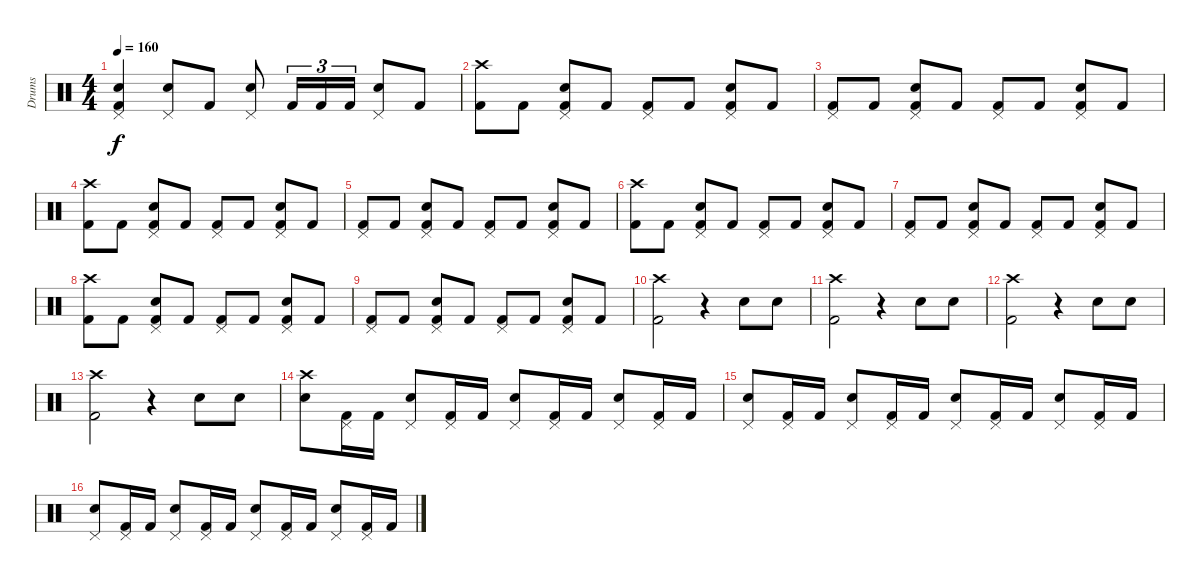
\track ("Drums" "Drums") {instrument percussion}
\staff {score}
\articulation defaults
\ts (4 4)
\tempo 160
\clef neutral
\ks c
("Pedal Hi-Hat (hit)" "Snare (hit) 2" "Kick (hit) 2").4{dy f} ("Pedal Hi-Hat (hit)" "Snare (hit) 2").8 "Kick (hit) 2".8 ("Pedal Hi-Hat (hit)" "Snare (hit) 2").8 "Kick (hit) 2".16{tu (3 2)} "Kick (hit) 2".16{tu (3 2)} "Kick (hit) 2".16{tu (3 2)} ("Pedal Hi-Hat (hit)" "Snare (hit) 2").8 "Kick (hit) 2".8 |
("Crash high (hit)" "Kick (hit) 2").8 "Kick (hit) 2".8 ("Pedal Hi-Hat (hit)" "Snare (hit) 2" "Kick (hit) 2").8 "Kick (hit) 2".8 ("Pedal Hi-Hat (hit)" "Kick (hit) 2").8 "Kick (hit) 2".8 ("Pedal Hi-Hat (hit)" "Snare (hit) 2" "Kick (hit) 2").8 "Kick (hit) 2".8 |
("Pedal Hi-Hat (hit)" "Kick (hit) 2").8 "Kick (hit) 2".8 ("Pedal Hi-Hat (hit)" "Snare (hit) 2" "Kick (hit) 2").8 "Kick (hit) 2".8 ("Pedal Hi-Hat (hit)" "Kick (hit) 2").8 "Kick (hit) 2".8 ("Pedal Hi-Hat (hit)" "Snare (hit) 2" "Kick (hit) 2").8 "Kick (hit) 2".8 |
("Crash high (hit)" "Kick (hit) 2").8 "Kick (hit) 2".8 ("Pedal Hi-Hat (hit)" "Snare (hit) 2" "Kick (hit) 2").8 "Kick (hit) 2".8 ("Pedal Hi-Hat (hit)" "Kick (hit) 2").8 "Kick (hit) 2".8 ("Pedal Hi-Hat (hit)" "Snare (hit) 2" "Kick (hit) 2").8 "Kick (hit) 2".8 |
("Pedal Hi-Hat (hit)" "Kick (hit) 2").8 "Kick (hit) 2".8 ("Pedal Hi-Hat (hit)" "Snare (hit) 2" "Kick (hit) 2").8 "Kick (hit) 2".8 ("Pedal Hi-Hat (hit)" "Kick (hit) 2").8 "Kick (hit) 2".8 ("Pedal Hi-Hat (hit)" "Snare (hit) 2" "Kick (hit) 2").8 "Kick (hit) 2".8 |
("Crash high (hit)" "Kick (hit) 2").8 "Kick (hit) 2".8 ("Pedal Hi-Hat (hit)" "Snare (hit) 2" "Kick (hit) 2").8 "Kick (hit) 2".8 ("Pedal Hi-Hat (hit)" "Kick (hit) 2").8 "Kick (hit) 2".8 ("Pedal Hi-Hat (hit)" "Snare (hit) 2" "Kick (hit) 2").8 "Kick (hit) 2".8 |
("Pedal Hi-Hat (hit)" "Kick (hit) 2").8 "Kick (hit) 2".8 ("Pedal Hi-Hat (hit)" "Snare (hit) 2" "Kick (hit) 2").8 "Kick (hit) 2".8 ("Pedal Hi-Hat (hit)" "Kick (hit) 2").8 "Kick (hit) 2".8 ("Pedal Hi-Hat (hit)" "Snare (hit) 2" "Kick (hit) 2").8 "Kick (hit) 2".8 |
("Crash high (hit)" "Kick (hit) 2").8 "Kick (hit) 2".8 ("Pedal Hi-Hat (hit)" "Snare (hit) 2" "Kick (hit) 2").8 "Kick (hit) 2".8 ("Pedal Hi-Hat (hit)" "Kick (hit) 2").8 "Kick (hit) 2".8 ("Pedal Hi-Hat (hit)" "Snare (hit) 2" "Kick (hit) 2").8 "Kick (hit) 2".8 |
("Pedal Hi-Hat (hit)" "Kick (hit) 2").8 "Kick (hit) 2".8 ("Pedal Hi-Hat (hit)" "Snare (hit) 2" "Kick (hit) 2").8 "Kick (hit) 2".8 ("Pedal Hi-Hat (hit)" "Kick (hit) 2").8 "Kick (hit) 2".8 ("Pedal Hi-Hat (hit)" "Snare (hit) 2" "Kick (hit) 2").8 "Kick (hit) 2".8 |
("Crash high (hit)" "Kick (hit) 2").2 r.4 "Snare (hit) 2".8 "Snare (hit) 2".8 |
("Crash high (hit)" "Kick (hit) 2").2 r.4 "Snare (hit) 2".8 "Snare (hit) 2".8 |
("Crash high (hit)" "Kick (hit) 2").2 r.4 "Snare (hit) 2".8 "Snare (hit) 2".8 |
("Crash high (hit)" "Kick (hit) 2").2 r.4 "Snare (hit) 2".8 "Snare (hit) 2".8 |
("Crash high (hit)" "Snare (hit) 2").8 ("Pedal Hi-Hat (hit)" "Kick (hit) 2").16 "Kick (hit) 2".16 ("Pedal Hi-Hat (hit)" "Snare (hit) 2").8 ("Pedal Hi-Hat (hit)" "Kick (hit) 2").16 "Kick (hit) 2".16 ("Pedal Hi-Hat (hit)" "Snare (hit) 2").8 ("Pedal Hi-Hat (hit)" "Kick (hit) 2").16 "Kick (hit) 2".16 ("Pedal Hi-Hat (hit)" "Snare (hit) 2").8 ("Pedal Hi-Hat (hit)" "Kick (hit) 2").16 "Kick (hit) 2".16 |
("Pedal Hi-Hat (hit)" "Snare (hit) 2").8 ("Pedal Hi-Hat (hit)" "Kick (hit) 2").16 "Kick (hit) 2".16 ("Pedal Hi-Hat (hit)" "Snare (hit) 2").8 ("Pedal Hi-Hat (hit)" "Kick (hit) 2").16 "Kick (hit) 2".16 ("Pedal Hi-Hat (hit)" "Snare (hit) 2").8 ("Pedal Hi-Hat (hit)" "Kick (hit) 2").16 "Kick (hit) 2".16 ("Pedal Hi-Hat (hit)" "Snare (hit) 2").8 ("Pedal Hi-Hat (hit)" "Kick (hit) 2").16 "Kick (hit) 2".16 |
("Pedal Hi-Hat (hit)" "Snare (hit) 2").8 ("Pedal Hi-Hat (hit)" "Kick (hit) 2").16 "Kick (hit) 2".16 ("Pedal Hi-Hat (hit)" "Snare (hit) 2").8 ("Pedal Hi-Hat (hit)" "Kick (hit) 2").16 "Kick (hit) 2".16 ("Pedal Hi-Hat (hit)" "Snare (hit) 2").8 ("Pedal Hi-Hat (hit)" "Kick (hit) 2").16 "Kick (hit) 2".16 ("Pedal Hi-Hat (hit)" "Snare (hit) 2").8 ("Pedal Hi-Hat (hit)" "Kick (hit) 2").16 "Kick (hit) 2".16
